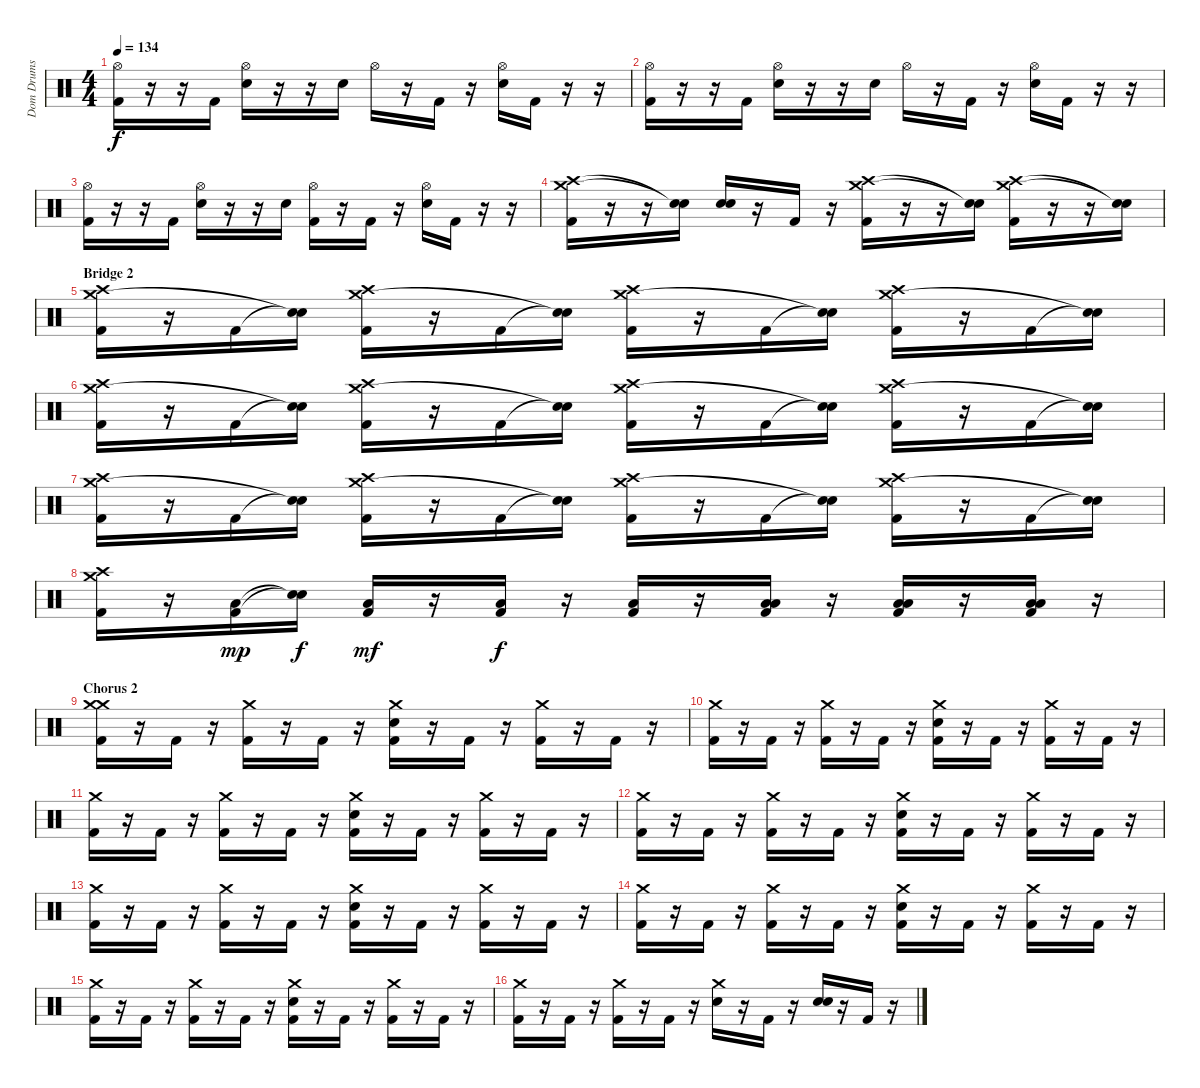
\track ("Dom Drums" "Dom Drums") {instrument percussion}
\staff {score}
\articulation defaults
\ts (4 4)
\tempo 134
\clef neutral
\ks c
("Hi-Hat (open)" "Kick (hit) 2").16{dy f} r.16 r.16 "Kick (hit) 2".16 ("Hi-Hat (open)" "Electric Snare (hit)").16 r.16 r.16 "Electric Snare (hit)".16 "Hi-Hat (open)".16 r.16 "Kick (hit) 2".16 r.16 ("Hi-Hat (open)" "Electric Snare (hit)").16 "Kick (hit) 2".16 r.16 r.16 |
("Hi-Hat (open)" "Kick (hit) 2").16 r.16 r.16 "Kick (hit) 2".16 ("Hi-Hat (open)" "Electric Snare (hit)").16 r.16 r.16 "Electric Snare (hit)".16 "Hi-Hat (open)".16 r.16 "Kick (hit) 2".16 r.16 ("Hi-Hat (open)" "Electric Snare (hit)").16 "Kick (hit) 2".16 r.16 r.16 |
("Hi-Hat (open)" "Kick (hit) 2").16 r.16 r.16 "Kick (hit) 2".16 ("Hi-Hat (open)" "Electric Snare (hit)").16 r.16 r.16 "Electric Snare (hit)".16 ("Hi-Hat (open)" "Kick (hit) 2").16 r.16 "Kick (hit) 2".16 r.16 ("Hi-Hat (open)" "Electric Snare (hit)").16 "Kick (hit) 2".16 r.16 r.16 |
("Crash medium (hit)" "Crash high (hit)" "Kick (hit) 2").16 r.16 r.16 ("Snare (hit)"{t} "Snare (hit)"{t}).16 ("Electric Snare (hit)" "Electric Snare (hit)").16 r.16 "Kick (hit) 2".16 r.16 ("Crash high (hit)" "Crash medium (hit)" "Kick (hit) 2").16 r.16 r.16 ("Snare (hit)"{t} "Snare (hit)"{t}).16 ("Crash high (hit)" "Crash medium (hit)" "Kick (hit) 2").16 r.16 r.16 ("Snare (hit)"{t} "Snare (hit)"{t}).16 |
\section ("" "Bridge 2")
("Crash high (hit)" "Crash medium (hit)" "Kick (hit) 2").16 r.16 "Kick (hit) 2".16 ("Snare (hit)"{t} "Snare (hit)"{t}).16 ("Crash high (hit)" "Crash medium (hit)" "Kick (hit) 2").16 r.16 "Kick (hit) 2".16 ("Snare (hit)"{t} "Snare (hit)"{t}).16 ("Crash high (hit)" "Crash medium (hit)" "Kick (hit) 2").16 r.16 "Kick (hit) 2".16 ("Snare (hit)"{t} "Snare (hit)"{t}).16 ("Crash high (hit)" "Crash medium (hit)" "Kick (hit) 2").16 r.16 "Kick (hit) 2".16 ("Snare (hit)"{t} "Snare (hit)"{t}).16 |
("Crash high (hit)" "Crash medium (hit)" "Kick (hit) 2").16 r.16 "Kick (hit) 2".16 ("Snare (hit)"{t} "Snare (hit)"{t}).16 ("Crash high (hit)" "Crash medium (hit)" "Kick (hit) 2").16 r.16 "Kick (hit) 2".16 ("Snare (hit)"{t} "Snare (hit)"{t}).16 ("Crash high (hit)" "Crash medium (hit)" "Kick (hit) 2").16 r.16 "Kick (hit) 2".16 ("Snare (hit)"{t} "Snare (hit)"{t}).16 ("Crash high (hit)" "Crash medium (hit)" "Kick (hit) 2").16 r.16 "Kick (hit) 2".16 ("Snare (hit)"{t} "Snare (hit)"{t}).16 |
("Crash high (hit)" "Crash medium (hit)" "Kick (hit) 2").16 r.16 "Kick (hit) 2".16 ("Snare (hit)"{t} "Snare (hit)"{t}).16 ("Crash high (hit)" "Crash medium (hit)" "Kick (hit) 2").16 r.16 "Kick (hit) 2".16 ("Snare (hit)"{t} "Snare (hit)"{t}).16 ("Crash high (hit)" "Crash medium (hit)" "Kick (hit) 2").16 r.16 "Kick (hit) 2".16 ("Snare (hit)"{t} "Snare (hit)"{t}).16 ("Crash high (hit)" "Crash medium (hit)" "Kick (hit) 2").16 r.16 "Kick (hit) 2".16 ("Snare (hit)"{t} "Snare (hit)"{t}).16 |
("Crash high (hit)" "Crash medium (hit)" "Kick (hit) 2").16 r.16 ("Low Tom (hit)" "Kick (hit) 2").16{dy mp} ("Snare (hit)"{t} "Snare (hit)"{t}).16{dy f} ("Low Tom (hit)" "Kick (hit) 2").16{dy mf} r.16 ("Low Tom (hit)" "Kick (hit) 2").16{dy f} r.16 ("Low Tom (hit)" "Kick (hit) 2").16 r.16 ("Low Tom (hit)" "Low Floor Tom (hit)" "Kick (hit) 2").16 r.16 ("Low Tom (hit)" "Low Floor Tom (hit)" "Kick (hit) 2").16 r.16 ("Low Tom (hit)" "Low Floor Tom (hit)" "Kick (hit) 2").16 r.16 |
\section ("" "Chorus 2")
("Crash medium (hit)" "Crash medium (hit)" "Kick (hit) 2").16 r.16 "Kick (hit) 2".16 r.16 ("Crash medium (hit)" "Kick (hit) 2").16 r.16 "Kick (hit) 2".16 r.16 ("Crash medium (hit)" "Electric Snare (hit)" "Kick (hit) 2").16 r.16 "Kick (hit) 2".16 r.16 ("Crash medium (hit)" "Kick (hit) 2").16 r.16 "Kick (hit) 2".16 r.16 |
("Crash medium (hit)" "Kick (hit) 2").16 r.16 "Kick (hit) 2".16 r.16 ("Crash medium (hit)" "Kick (hit) 2").16 r.16 "Kick (hit) 2".16 r.16 ("Crash medium (hit)" "Electric Snare (hit)" "Kick (hit) 2").16 r.16 "Kick (hit) 2".16 r.16 ("Crash medium (hit)" "Kick (hit) 2").16 r.16 "Kick (hit) 2".16 r.16 |
("Crash medium (hit)" "Kick (hit) 2").16 r.16 "Kick (hit) 2".16 r.16 ("Crash medium (hit)" "Kick (hit) 2").16 r.16 "Kick (hit) 2".16 r.16 ("Crash medium (hit)" "Electric Snare (hit)" "Kick (hit) 2").16 r.16 "Kick (hit) 2".16 r.16 ("Crash medium (hit)" "Kick (hit) 2").16 r.16 "Kick (hit) 2".16 r.16 |
("Crash medium (hit)" "Kick (hit) 2").16 r.16 "Kick (hit) 2".16 r.16 ("Crash medium (hit)" "Kick (hit) 2").16 r.16 "Kick (hit) 2".16 r.16 ("Crash medium (hit)" "Electric Snare (hit)" "Kick (hit) 2").16 r.16 "Kick (hit) 2".16 r.16 ("Crash medium (hit)" "Kick (hit) 2").16 r.16 "Kick (hit) 2".16 r.16 |
("Crash medium (hit)" "Kick (hit) 2").16 r.16 "Kick (hit) 2".16 r.16 ("Crash medium (hit)" "Kick (hit) 2").16 r.16 "Kick (hit) 2".16 r.16 ("Crash medium (hit)" "Electric Snare (hit)" "Kick (hit) 2").16 r.16 "Kick (hit) 2".16 r.16 ("Crash medium (hit)" "Kick (hit) 2").16 r.16 "Kick (hit) 2".16 r.16 |
("Crash medium (hit)" "Kick (hit) 2").16 r.16 "Kick (hit) 2".16 r.16 ("Crash medium (hit)" "Kick (hit) 2").16 r.16 "Kick (hit) 2".16 r.16 ("Crash medium (hit)" "Electric Snare (hit)" "Kick (hit) 2").16 r.16 "Kick (hit) 2".16 r.16 ("Crash medium (hit)" "Kick (hit) 2").16 r.16 "Kick (hit) 2".16 r.16 |
("Crash medium (hit)" "Kick (hit) 2").16 r.16 "Kick (hit) 2".16 r.16 ("Crash medium (hit)" "Kick (hit) 2").16 r.16 "Kick (hit) 2".16 r.16 ("Crash medium (hit)" "Electric Snare (hit)" "Kick (hit) 2").16 r.16 "Kick (hit) 2".16 r.16 ("Crash medium (hit)" "Kick (hit) 2").16 r.16 "Kick (hit) 2".16 r.16 |
("Crash medium (hit)" "Kick (hit) 2").16 r.16 "Kick (hit) 2".16 r.16 ("Crash medium (hit)" "Kick (hit) 2").16 r.16 "Kick (hit) 2".16 r.16 ("Crash medium (hit)" "Electric Snare (hit)").16 r.16 "Kick (hit) 2".16 r.16 ("Electric Snare (hit)" "Electric Snare (hit)").16 r.16 "Kick (hit) 2".16 r.16
